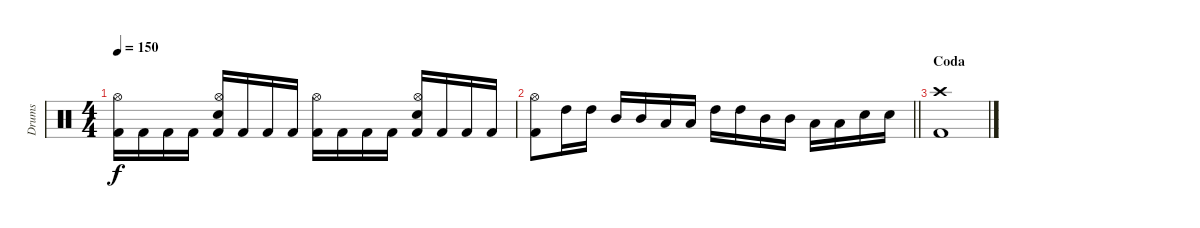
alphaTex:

\track ("Drums" "Drums") {instrument percussion}
\staff {score}
\articulation defaults
\ts (4 4)
\tempo 150
\clef neutral
\ks c
("Kick (hit) 2" "Hi-Hat (open)").16{dy f} "Kick (hit) 2".16 "Kick (hit) 2".16 "Kick (hit) 2".16 ("Kick (hit) 2" "Electric Snare (hit)" "Hi-Hat (open)").16 "Kick (hit) 2".16 "Kick (hit) 2".16 "Kick (hit) 2".16 ("Kick (hit) 2" "Hi-Hat (open)").16 "Kick (hit) 2".16 "Kick (hit) 2".16 "Kick (hit) 2".16 ("Kick (hit) 2" "Electric Snare (hit)" "Hi-Hat (open)").16 "Kick (hit) 2".16 "Kick (hit) 2".16 "Kick (hit) 2".16 |
\barLineRight lightlight
("Hi-Hat (open)" "Kick (hit) 2").8 "High Tom (hit)".16 "High Tom (hit)".16 "Mid Tom (hit)".16 "Mid Tom (hit)".16 "Low Tom (hit)".16 "Low Tom (hit)".16 "High Tom (hit)".16 "High Tom (hit)".16 "Mid Tom (hit)".16 "Mid Tom (hit)".16 "Low Tom (hit)".16 "Low Tom (hit)".16 "Electric Snare (hit)".16 "Electric Snare (hit)".16 |
\section ("" "Coda")
("Crash high (hit)" "Kick (hit) 2").1
